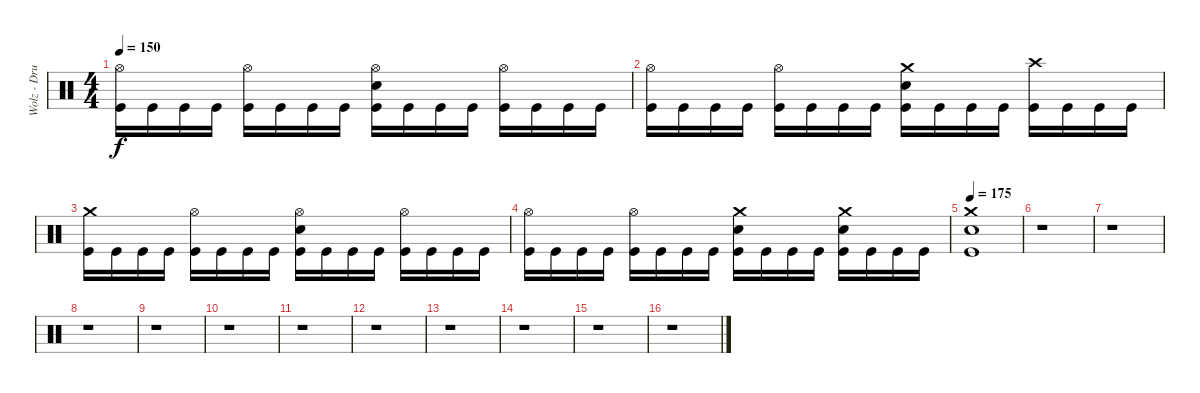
\track ("Wolz - Drums" "Wolz - Dru") {instrument percussion}
\staff {score}
\articulation defaults
\ts (4 4)
\tempo 150
\clef neutral
\ks c
("Hi-Hat (open)" "Kick (hit)").16{dy f} "Kick (hit)".16 "Kick (hit)".16 "Kick (hit)".16 ("Hi-Hat (open)" "Kick (hit)").16 "Kick (hit)".16 "Kick (hit)".16 "Kick (hit)".16 ("Hi-Hat (open)" "Electric Snare (hit)" "Kick (hit)").16 "Kick (hit)".16 "Kick (hit)".16 "Kick (hit)".16 ("Hi-Hat (open)" "Kick (hit)").16 "Kick (hit)".16 "Kick (hit)".16 "Kick (hit)".16 |
("Hi-Hat (open)" "Kick (hit)").16 "Kick (hit)".16 "Kick (hit)".16 "Kick (hit)".16 ("Hi-Hat (open)" "Kick (hit)").16 "Kick (hit)".16 "Kick (hit)".16 "Kick (hit)".16 ("Crash medium (hit)" "Electric Snare (hit)" "Kick (hit)").16 "Kick (hit)".16 "Kick (hit)".16 "Kick (hit)".16 ("Crash high (hit)" "Kick (hit)").16 "Kick (hit)".16 "Kick (hit)".16 "Kick (hit)".16 |
("Crash medium (hit)" "Kick (hit)").16 "Kick (hit)".16 "Kick (hit)".16 "Kick (hit)".16 ("Hi-Hat (open)" "Kick (hit)").16 "Kick (hit)".16 "Kick (hit)".16 "Kick (hit)".16 ("Hi-Hat (open)" "Electric Snare (hit)" "Kick (hit)").16 "Kick (hit)".16 "Kick (hit)".16 "Kick (hit)".16 ("Hi-Hat (open)" "Kick (hit)").16 "Kick (hit)".16 "Kick (hit)".16 "Kick (hit)".16 |
("Hi-Hat (open)" "Kick (hit)").16 "Kick (hit)".16 "Kick (hit)".16 "Kick (hit)".16 ("Hi-Hat (open)" "Kick (hit)").16 "Kick (hit)".16 "Kick (hit)".16 "Kick (hit)".16 ("Crash medium (hit)" "Electric Snare (hit)" "Kick (hit)").16 "Kick (hit)".16 "Kick (hit)".16 "Kick (hit)".16 ("Crash medium (hit)" "Electric Snare (hit)" "Kick (hit)").16 "Kick (hit)".16 "Kick (hit)".16 "Kick (hit)".16 |
\tempo 175
("Crash medium (hit)" "Electric Snare (hit)" "Kick (hit)").1 |
r.1 |
r.1 |
r.1 |
r.1 |
r.1 |
r.1 |
r.1 |
r.1 |
r.1 |
r.1 |
r.1
